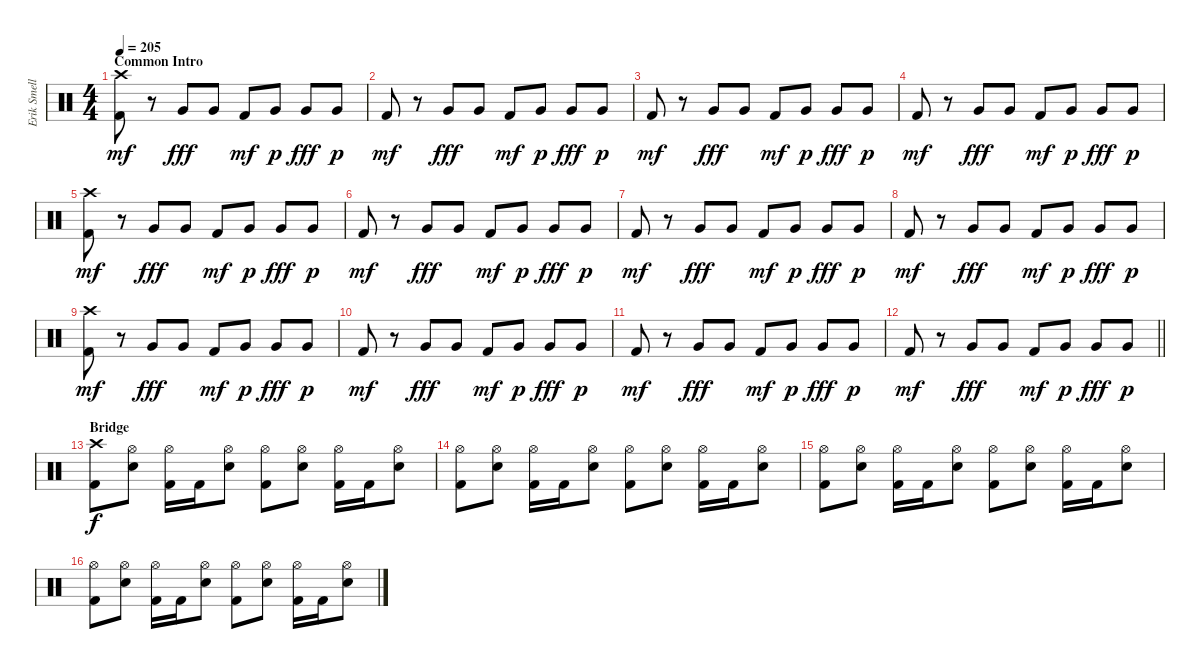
\track ("Erik Smelly" "Erik Smell") {instrument percussion}
\staff {score}
\articulation defaults
\ts (4 4)
\section ("" "Common Intro")
\tempo 205
\clef neutral
\ks c
("Crash high (hit)" "Kick (hit) 2").8{dy mf} r.8 "Very Low Tom (hit)".8{dy fff} "Very Low Tom (hit)".8 "Kick (hit) 2".8{dy mf} "Very Low Tom (hit)".8{dy p} "Very Low Tom (hit)".8{dy fff} "Very Low Tom (hit)".8{dy p} |
"Kick (hit) 2".8{dy mf} r.8 "Very Low Tom (hit)".8{dy fff} "Very Low Tom (hit)".8 "Kick (hit) 2".8{dy mf} "Very Low Tom (hit)".8{dy p} "Very Low Tom (hit)".8{dy fff} "Very Low Tom (hit)".8{dy p} |
"Kick (hit) 2".8{dy mf} r.8 "Very Low Tom (hit)".8{dy fff} "Very Low Tom (hit)".8 "Kick (hit) 2".8{dy mf} "Very Low Tom (hit)".8{dy p} "Very Low Tom (hit)".8{dy fff} "Very Low Tom (hit)".8{dy p} |
"Kick (hit) 2".8{dy mf} r.8 "Very Low Tom (hit)".8{dy fff} "Very Low Tom (hit)".8 "Kick (hit) 2".8{dy mf} "Very Low Tom (hit)".8{dy p} "Very Low Tom (hit)".8{dy fff} "Very Low Tom (hit)".8{dy p} |
("Crash high (hit)" "Kick (hit) 2").8{dy mf} r.8 "Very Low Tom (hit)".8{dy fff} "Very Low Tom (hit)".8 "Kick (hit) 2".8{dy mf} "Very Low Tom (hit)".8{dy p} "Very Low Tom (hit)".8{dy fff} "Very Low Tom (hit)".8{dy p} |
"Kick (hit) 2".8{dy mf} r.8 "Very Low Tom (hit)".8{dy fff} "Very Low Tom (hit)".8 "Kick (hit) 2".8{dy mf} "Very Low Tom (hit)".8{dy p} "Very Low Tom (hit)".8{dy fff} "Very Low Tom (hit)".8{dy p} |
"Kick (hit) 2".8{dy mf} r.8 "Very Low Tom (hit)".8{dy fff} "Very Low Tom (hit)".8 "Kick (hit) 2".8{dy mf} "Very Low Tom (hit)".8{dy p} "Very Low Tom (hit)".8{dy fff} "Very Low Tom (hit)".8{dy p} |
"Kick (hit) 2".8{dy mf} r.8 "Very Low Tom (hit)".8{dy fff} "Very Low Tom (hit)".8 "Kick (hit) 2".8{dy mf} "Very Low Tom (hit)".8{dy p} "Very Low Tom (hit)".8{dy fff} "Very Low Tom (hit)".8{dy p} |
("Crash high (hit)" "Kick (hit) 2").8{dy mf} r.8 "Very Low Tom (hit)".8{dy fff} "Very Low Tom (hit)".8 "Kick (hit) 2".8{dy mf} "Very Low Tom (hit)".8{dy p} "Very Low Tom (hit)".8{dy fff} "Very Low Tom (hit)".8{dy p} |
"Kick (hit) 2".8{dy mf} r.8 "Very Low Tom (hit)".8{dy fff} "Very Low Tom (hit)".8 "Kick (hit) 2".8{dy mf} "Very Low Tom (hit)".8{dy p} "Very Low Tom (hit)".8{dy fff} "Very Low Tom (hit)".8{dy p} |
"Kick (hit) 2".8{dy mf} r.8 "Very Low Tom (hit)".8{dy fff} "Very Low Tom (hit)".8 "Kick (hit) 2".8{dy mf} "Very Low Tom (hit)".8{dy p} "Very Low Tom (hit)".8{dy fff} "Very Low Tom (hit)".8{dy p} |
\barLineRight lightlight "Kick (hit) 2".8{dy mf}
r.8 "Very Low Tom (hit)".8{dy fff} "Very Low Tom (hit)".8 "Kick (hit) 2".8{dy mf} "Very Low Tom (hit)".8{dy p} "Very Low Tom (hit)".8{dy fff} "Very Low Tom (hit)".8{dy p} |
\section ("" "Bridge")
("Crash high (hit)" "Kick (hit) 2").8{dy f} ("Hi-Hat (open)" "Electric Snare (hit)").8 ("Hi-Hat (open)" "Kick (hit) 2").16 "Kick (hit) 2".16 ("Hi-Hat (open)" "Electric Snare (hit)").8 ("Hi-Hat (open)" "Kick (hit) 2").8 ("Hi-Hat (open)" "Electric Snare (hit)").8 ("Hi-Hat (open)" "Kick (hit) 2").16 "Kick (hit) 2".16 ("Hi-Hat (open)" "Electric Snare (hit)").8 |
("Hi-Hat (open)" "Kick (hit) 2").8 ("Hi-Hat (open)" "Electric Snare (hit)").8 ("Hi-Hat (open)" "Kick (hit) 2").16 "Kick (hit) 2".16 ("Hi-Hat (open)" "Electric Snare (hit)").8 ("Hi-Hat (open)" "Kick (hit) 2").8 ("Hi-Hat (open)" "Electric Snare (hit)").8 ("Hi-Hat (open)" "Kick (hit) 2").16 "Kick (hit) 2".16 ("Hi-Hat (open)" "Electric Snare (hit)").8 |
("Hi-Hat (open)" "Kick (hit) 2").8 ("Hi-Hat (open)" "Electric Snare (hit)").8 ("Hi-Hat (open)" "Kick (hit) 2").16 "Kick (hit) 2".16 ("Hi-Hat (open)" "Electric Snare (hit)").8 ("Hi-Hat (open)" "Kick (hit) 2").8 ("Hi-Hat (open)" "Electric Snare (hit)").8 ("Hi-Hat (open)" "Kick (hit) 2").16 "Kick (hit) 2".16 ("Hi-Hat (open)" "Electric Snare (hit)").8 |
("Hi-Hat (open)" "Kick (hit) 2").8 ("Hi-Hat (open)" "Electric Snare (hit)").8 ("Hi-Hat (open)" "Kick (hit) 2").16 "Kick (hit) 2".16 ("Hi-Hat (open)" "Electric Snare (hit)").8 ("Hi-Hat (open)" "Kick (hit) 2").8 ("Hi-Hat (open)" "Electric Snare (hit)").8 ("Hi-Hat (open)" "Kick (hit) 2").16 "Kick (hit) 2".16 ("Hi-Hat (open)" "Electric Snare (hit)").8
